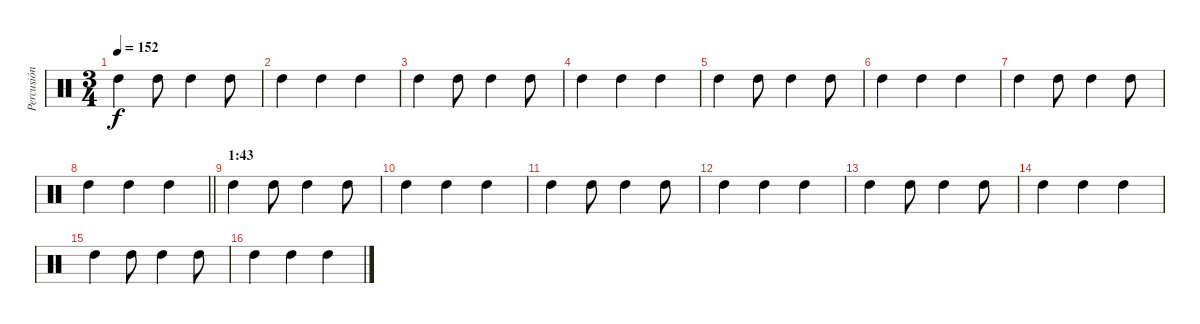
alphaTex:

\track ("Percusión" "Percusión") {instrument percussion}
\staff {score}
\articulation defaults
\ts (3 4)
\tempo 152
\clef neutral
\ks c "High Tom (hit)".4{dy f} "High Tom (hit)".8 "High Tom (hit)".4 "High Tom (hit)".8
|
"High Tom (hit)".4 "High Tom (hit)".4 "High Tom (hit)".4 |
"High Tom (hit)".4 "High Tom (hit)".8 "High Tom (hit)".4 "High Tom (hit)".8 |
"High Tom (hit)".4 "High Tom (hit)".4 "High Tom (hit)".4 |
"High Tom (hit)".4 "High Tom (hit)".8 "High Tom (hit)".4 "High Tom (hit)".8 |
"High Tom (hit)".4 "High Tom (hit)".4 "High Tom (hit)".4 |
"High Tom (hit)".4 "High Tom (hit)".8 "High Tom (hit)".4 "High Tom (hit)".8 |
\barLineRight lightlight "High Tom (hit)".4 "High Tom (hit)".4 "High Tom (hit)".4
|
\section ("" "1:43")
"High Tom (hit)".4 "High Tom (hit)".8 "High Tom (hit)".4 "High Tom (hit)".8 |
"High Tom (hit)".4 "High Tom (hit)".4 "High Tom (hit)".4 |
"High Tom (hit)".4 "High Tom (hit)".8 "High Tom (hit)".4 "High Tom (hit)".8 |
"High Tom (hit)".4 "High Tom (hit)".4 "High Tom (hit)".4 |
"High Tom (hit)".4 "High Tom (hit)".8 "High Tom (hit)".4 "High Tom (hit)".8 |
"High Tom (hit)".4 "High Tom (hit)".4 "High Tom (hit)".4 |
"High Tom (hit)".4 "High Tom (hit)".8 "High Tom (hit)".4 "High Tom (hit)".8 |
"High Tom (hit)".4 "High Tom (hit)".4 "High Tom (hit)".4
